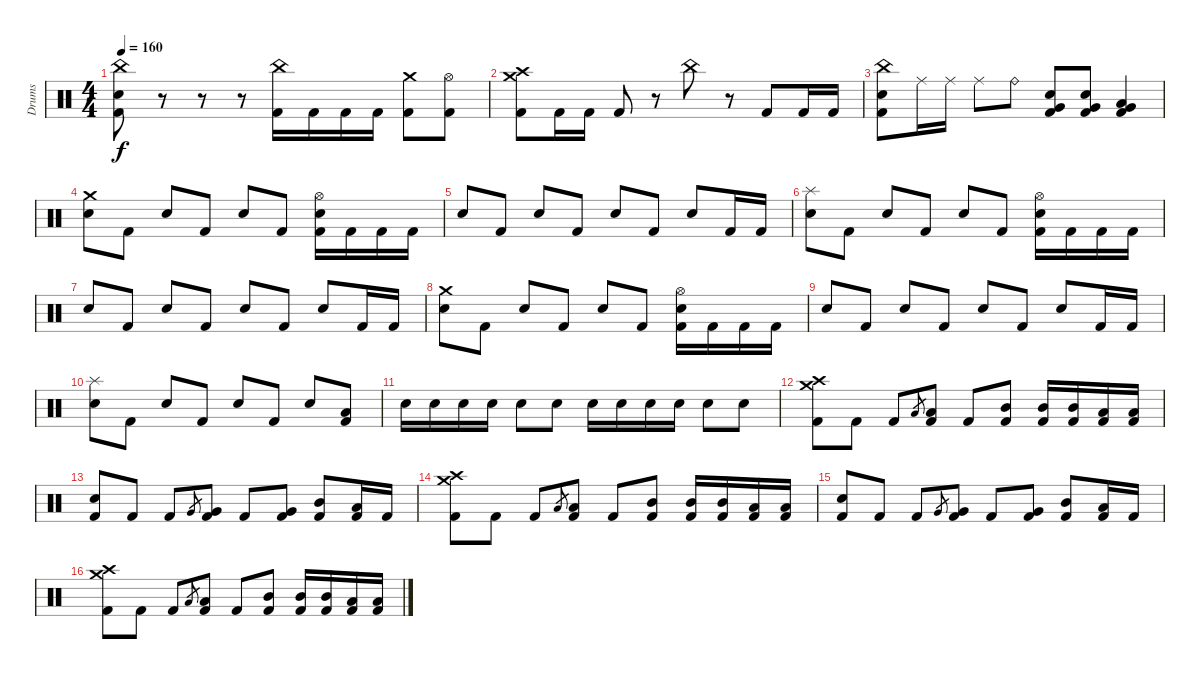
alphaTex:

\track ("Drums" "Drums") {instrument percussion}
\staff {score}
\articulation defaults
\ts (4 4)
\tempo 160
\clef neutral
\ks c
("China (hit)" "Electric Snare (hit)" "Kick (hit) 2").8{dy f} r.8 r.8 r.8 ("China (hit)" "Kick (hit) 2").16 "Kick (hit) 2".16 "Kick (hit) 2".16 "Kick (hit) 2".16 ("Crash medium (hit)" "Kick (hit) 2").8 ("Hi-Hat (open)" "Kick (hit) 2").8 |
("Crash high (hit)" "Crash medium (hit)" "Kick (hit) 2").8 "Kick (hit) 2".16 "Kick (hit) 2".16 "Kick (hit) 2".8 r.8 "China (hit)".8 r.8 "Kick (hit) 2".8 "Kick (hit) 2".16 "Kick (hit) 2".16 |
("China (hit)" "Electric Snare (hit)" "Kick (hit) 2").8 "Ride (middle)".16 "Ride (middle)".16 "Ride (middle)".8 "Ride (bell)".8 ("Very Low Tom (hit)" "Electric Snare (hit)" "Kick (hit) 2").8 ("Very Low Tom (hit)" "Electric Snare (hit)" "Kick (hit) 2").8 ("Very Low Tom (hit)" "Low Tom (hit)" "Kick (hit) 2").4 |
("Crash medium (hit)" "Electric Snare (hit)").8 "Kick (hit) 2".8 "Electric Snare (hit)".8 "Kick (hit) 2".8 "Electric Snare (hit)".8 "Kick (hit) 2".8 ("Hi-Hat (open)" "Electric Snare (hit)" "Kick (hit) 2").16 "Kick (hit) 2".16 "Kick (hit) 2".16 "Kick (hit) 2".16 |
"Electric Snare (hit)".8 "Kick (hit) 2".8 "Electric Snare (hit)".8 "Kick (hit) 2".8 "Electric Snare (hit)".8 "Kick (hit) 2".8 "Electric Snare (hit)".8 "Kick (hit) 2".16 "Kick (hit) 2".16 |
("Splash (hit)" "Electric Snare (hit)").8 "Kick (hit) 2".8 "Electric Snare (hit)".8 "Kick (hit) 2".8 "Electric Snare (hit)".8 "Kick (hit) 2".8 ("Hi-Hat (open)" "Electric Snare (hit)" "Kick (hit) 2").16 "Kick (hit) 2".16 "Kick (hit) 2".16 "Kick (hit) 2".16 |
"Electric Snare (hit)".8 "Kick (hit) 2".8 "Electric Snare (hit)".8 "Kick (hit) 2".8 "Electric Snare (hit)".8 "Kick (hit) 2".8 "Electric Snare (hit)".8 "Kick (hit) 2".16 "Kick (hit) 2".16 |
("Crash medium (hit)" "Electric Snare (hit)").8 "Kick (hit) 2".8 "Electric Snare (hit)".8 "Kick (hit) 2".8 "Electric Snare (hit)".8 "Kick (hit) 2".8 ("Hi-Hat (open)" "Electric Snare (hit)" "Kick (hit) 2").16 "Kick (hit) 2".16 "Kick (hit) 2".16 "Kick (hit) 2".16 |
"Electric Snare (hit)".8 "Kick (hit) 2".8 "Electric Snare (hit)".8 "Kick (hit) 2".8 "Electric Snare (hit)".8 "Kick (hit) 2".8 "Electric Snare (hit)".8 "Kick (hit) 2".16 "Kick (hit) 2".16 |
("Splash (hit)" "Electric Snare (hit)").8 "Kick (hit) 2".8 "Electric Snare (hit)".8 "Kick (hit) 2".8 "Electric Snare (hit)".8 "Kick (hit) 2".8 "Electric Snare (hit)".8 ("Low Tom (hit)" "Kick (hit) 2").8 |
"Electric Snare (hit)".16 "Electric Snare (hit)".16 "Electric Snare (hit)".16 "Electric Snare (hit)".16 "Electric Snare (hit)".8 "Electric Snare (hit)".8 "Electric Snare (hit)".16 "Electric Snare (hit)".16 "Electric Snare (hit)".16 "Electric Snare (hit)".16 "Electric Snare (hit)".8 "Electric Snare (hit)".8 |
("Crash high (hit)" "Crash medium (hit)" "Kick (hit) 2").8 "Kick (hit) 2".8 "Kick (hit) 2".8 "Low Tom (hit)".8{gr} ("Low Tom (hit)" "Kick (hit) 2").8 "Kick (hit) 2".8 ("Mid Tom (hit)" "Kick (hit) 2").8 ("Mid Tom (hit)" "Kick (hit) 2").16 ("Mid Tom (hit)" "Kick (hit) 2").16 ("Low Tom (hit)" "Kick (hit) 2").16 ("Low Tom (hit)" "Kick (hit) 2").16 |
("Electric Snare (hit)" "Kick (hit) 2").8 "Kick (hit) 2".8 "Kick (hit) 2".8 "Very Low Tom (hit)".8{gr} ("Very Low Tom (hit)" "Kick (hit) 2").8 "Kick (hit) 2".8 ("Very Low Tom (hit)" "Kick (hit) 2").8 ("Mid Tom (hit)" "Kick (hit) 2").8 ("Low Tom (hit)" "Kick (hit) 2").16 "Kick (hit) 2".16 |
("Crash high (hit)" "Crash medium (hit)" "Kick (hit) 2").8 "Kick (hit) 2".8 "Kick (hit) 2".8 "Low Tom (hit)".8{gr} ("Low Tom (hit)" "Kick (hit) 2").8 "Kick (hit) 2".8 ("Mid Tom (hit)" "Kick (hit) 2").8 ("Mid Tom (hit)" "Kick (hit) 2").16 ("Mid Tom (hit)" "Kick (hit) 2").16 ("Low Tom (hit)" "Kick (hit) 2").16 ("Low Tom (hit)" "Kick (hit) 2").16 |
("Electric Snare (hit)" "Kick (hit) 2").8 "Kick (hit) 2".8 "Kick (hit) 2".8 "Very Low Tom (hit)".8{gr} ("Very Low Tom (hit)" "Kick (hit) 2").8 "Kick (hit) 2".8 ("Very Low Tom (hit)" "Kick (hit) 2").8 ("Mid Tom (hit)" "Kick (hit) 2").8 ("Low Tom (hit)" "Kick (hit) 2").16 "Kick (hit) 2".16 |
("Crash high (hit)" "Crash medium (hit)" "Kick (hit) 2").8 "Kick (hit) 2".8 "Kick (hit) 2".8 "Low Tom (hit)".8{gr} ("Low Tom (hit)" "Kick (hit) 2").8 "Kick (hit) 2".8 ("Mid Tom (hit)" "Kick (hit) 2").8 ("Mid Tom (hit)" "Kick (hit) 2").16 ("Mid Tom (hit)" "Kick (hit) 2").16 ("Low Tom (hit)" "Kick (hit) 2").16 ("Low Tom (hit)" "Kick (hit) 2").16
